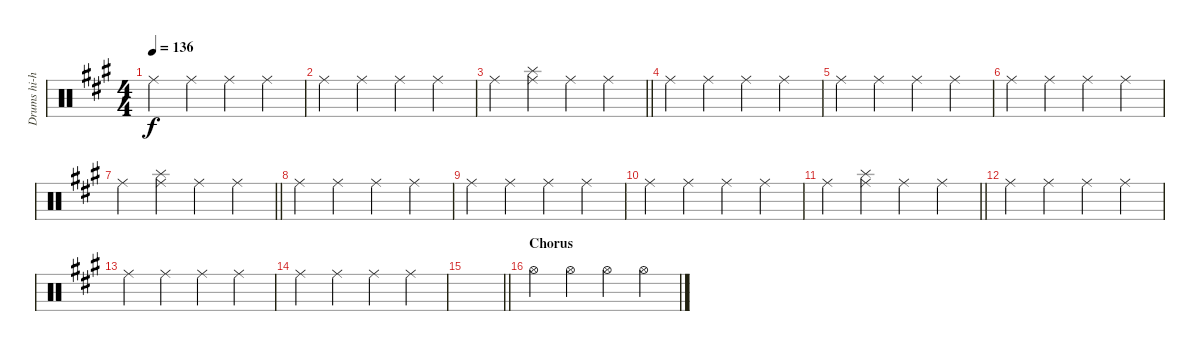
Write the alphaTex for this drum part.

\track ("Drums hi-hat" "Drums hi-h") {instrument percussion}
\staff {score}
\articulation defaults
\ts (4 4)
\tempo 136
\clef neutral
\ks a "Ride (middle)".4{dy f} "Ride (middle)".4 "Ride (middle)".4 "Ride (middle)".4
|
"Ride (middle)".4 "Ride (middle)".4 "Ride (middle)".4 "Ride (middle)".4 |
\barLineRight lightlight "Ride (middle)".4
("Splash (hit)" "Ride (middle)").4 "Ride (middle)".4 "Ride (middle)".4 |
"Ride (middle)".4 "Ride (middle)".4 "Ride (middle)".4 "Ride (middle)".4 |
"Ride (middle)".4 "Ride (middle)".4 "Ride (middle)".4 "Ride (middle)".4 |
"Ride (middle)".4 "Ride (middle)".4 "Ride (middle)".4 "Ride (middle)".4 |
\barLineRight lightlight "Ride (middle)".4
("Splash (hit)" "Ride (middle)").4 "Ride (middle)".4 "Ride (middle)".4 |
"Ride (middle)".4 "Ride (middle)".4 "Ride (middle)".4 "Ride (middle)".4 |
"Ride (middle)".4 "Ride (middle)".4 "Ride (middle)".4 "Ride (middle)".4 |
"Ride (middle)".4 "Ride (middle)".4 "Ride (middle)".4 "Ride (middle)".4 |
\barLineRight lightlight "Ride (middle)".4
("Splash (hit)" "Ride (middle)").4 "Ride (middle)".4 "Ride (middle)".4 |
"Ride (middle)".4 "Ride (middle)".4 "Ride (middle)".4 "Ride (middle)".4 |
"Ride (middle)".4 "Ride (middle)".4 "Ride (middle)".4 "Ride (middle)".4 |
"Ride (middle)".4 "Ride (middle)".4 "Ride (middle)".4 "Ride (middle)".4 |
\barLineRight lightlight
|
\section ("" "Chorus")
"Hi-Hat (open)".4 "Hi-Hat (open)".4 "Hi-Hat (open)".4 "Hi-Hat (open)".4
